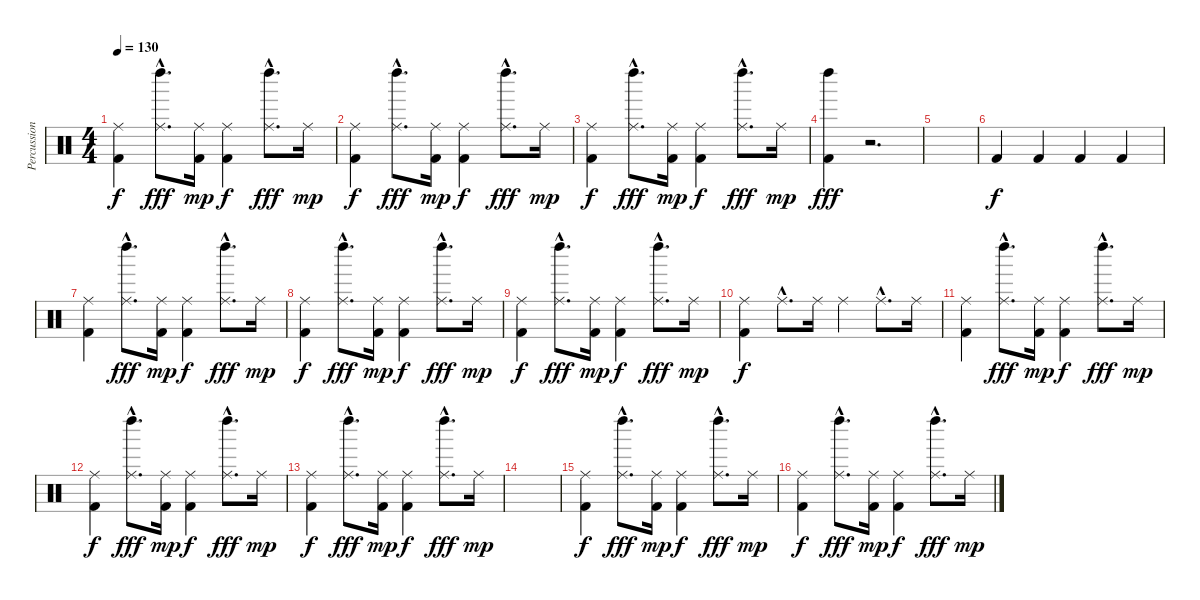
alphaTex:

\track ("Percussion" "Percussion") {instrument percussion}
\staff {score}
\articulation defaults
\ts (4 4)
\tempo 130
\clef neutral
\ks c
("Ride (middle)" "Kick (hit) 2").4{dy f} ("Ride (middle)"{hac} "Left Maraca (hit)"{hac}).8{d dy fff} ("Ride (middle)" "Kick (hit) 2").16{dy mp} ("Ride (middle)" "Kick (hit) 2").4{dy f} ("Ride (middle)"{hac} "Left Maraca (hit)"{hac}).8{d dy fff} "Ride (middle)".16{dy mp} |
("Ride (middle)" "Kick (hit) 2").4{dy f} ("Ride (middle)"{hac} "Left Maraca (hit)"{hac}).8{d dy fff} ("Ride (middle)" "Kick (hit) 2").16{dy mp} ("Ride (middle)" "Kick (hit) 2").4{dy f} ("Ride (middle)"{hac} "Left Maraca (hit)"{hac}).8{d dy fff} "Ride (middle)".16{dy mp} |
("Ride (middle)" "Kick (hit) 2").4{dy f} ("Ride (middle)"{hac} "Left Maraca (hit)"{hac}).8{d dy fff} ("Ride (middle)" "Kick (hit) 2").16{dy mp} ("Ride (middle)" "Kick (hit) 2").4{dy f} ("Ride (middle)"{hac} "Left Maraca (hit)"{hac}).8{d dy fff} "Ride (middle)".16{dy mp} |
("Kick (hit) 2" "Left Maraca (hit)").4{dy fff} r.2{d} |
|
"Kick (hit) 2".4{dy f} "Kick (hit) 2".4 "Kick (hit) 2".4 "Kick (hit) 2".4 |
("Ride (middle)" "Kick (hit) 2").4 ("Ride (middle)"{hac} "Left Maraca (hit)"{hac}).8{d dy fff} ("Ride (middle)" "Kick (hit) 2").16{dy mp} ("Ride (middle)" "Kick (hit) 2").4{dy f} ("Ride (middle)"{hac} "Left Maraca (hit)"{hac}).8{d dy fff} "Ride (middle)".16{dy mp} |
("Ride (middle)" "Kick (hit) 2").4{dy f} ("Ride (middle)"{hac} "Left Maraca (hit)"{hac}).8{d dy fff} ("Ride (middle)" "Kick (hit) 2").16{dy mp} ("Ride (middle)" "Kick (hit) 2").4{dy f} ("Ride (middle)"{hac} "Left Maraca (hit)"{hac}).8{d dy fff} "Ride (middle)".16{dy mp} |
("Ride (middle)" "Kick (hit) 2").4{dy f} ("Ride (middle)"{hac} "Left Maraca (hit)"{hac}).8{d dy fff} ("Ride (middle)" "Kick (hit) 2").16{dy mp} ("Ride (middle)" "Kick (hit) 2").4{dy f} ("Ride (middle)"{hac} "Left Maraca (hit)"{hac}).8{d dy fff} "Ride (middle)".16{dy mp} |
("Ride (middle)" "Kick (hit) 2").4{dy f} "Ride (middle)"{hac}.8{d} "Ride (middle)".16 "Ride (middle)".4 "Ride (middle)"{hac}.8{d} "Ride (middle)".16 |
("Ride (middle)" "Kick (hit) 2").4 ("Ride (middle)"{hac} "Left Maraca (hit)"{hac}).8{d dy fff} ("Ride (middle)" "Kick (hit) 2").16{dy mp} ("Ride (middle)" "Kick (hit) 2").4{dy f} ("Ride (middle)"{hac} "Left Maraca (hit)"{hac}).8{d dy fff} "Ride (middle)".16{dy mp} |
("Ride (middle)" "Kick (hit) 2").4{dy f} ("Ride (middle)"{hac} "Left Maraca (hit)"{hac}).8{d dy fff} ("Ride (middle)" "Kick (hit) 2").16{dy mp} ("Ride (middle)" "Kick (hit) 2").4{dy f} ("Ride (middle)"{hac} "Left Maraca (hit)"{hac}).8{d dy fff} "Ride (middle)".16{dy mp} |
("Ride (middle)" "Kick (hit) 2").4{dy f} ("Ride (middle)"{hac} "Left Maraca (hit)"{hac}).8{d dy fff} ("Ride (middle)" "Kick (hit) 2").16{dy mp} ("Ride (middle)" "Kick (hit) 2").4{dy f} ("Ride (middle)"{hac} "Left Maraca (hit)"{hac}).8{d dy fff} "Ride (middle)".16{dy mp} |
|
("Ride (middle)" "Kick (hit) 2").4{dy f} ("Ride (middle)"{hac} "Left Maraca (hit)"{hac}).8{d dy fff} ("Ride (middle)" "Kick (hit) 2").16{dy mp} ("Ride (middle)" "Kick (hit) 2").4{dy f} ("Ride (middle)"{hac} "Left Maraca (hit)"{hac}).8{d dy fff} "Ride (middle)".16{dy mp} |
("Ride (middle)" "Kick (hit) 2").4{dy f} ("Ride (middle)"{hac} "Left Maraca (hit)"{hac}).8{d dy fff} ("Ride (middle)" "Kick (hit) 2").16{dy mp} ("Ride (middle)" "Kick (hit) 2").4{dy f} ("Ride (middle)"{hac} "Left Maraca (hit)"{hac}).8{d dy fff} "Ride (middle)".16{dy mp}
